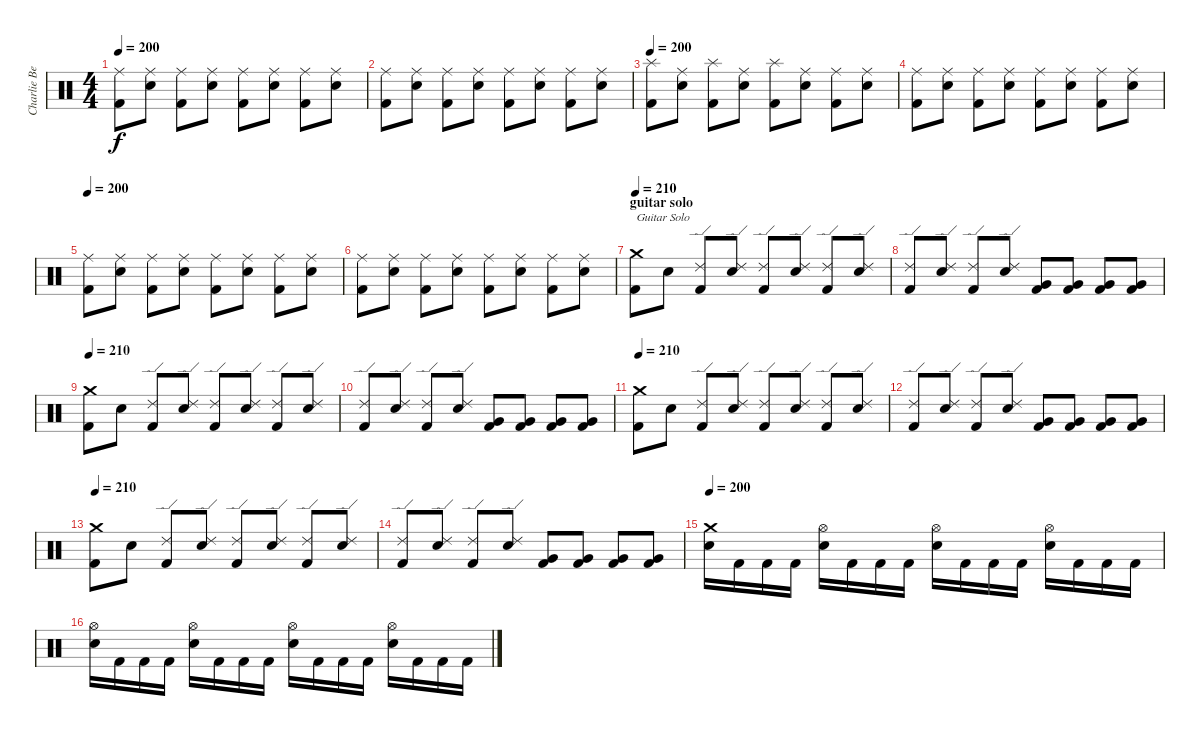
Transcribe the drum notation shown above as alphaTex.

\track ("Charlie Benante" "Charlie Be") {instrument percussion}
\staff {score}
\articulation defaults
\ts (4 4)
\tempo 200
\clef neutral
\ks c
("Ride (middle)" "Kick (hit) 2").8{dy f} ("Ride (middle)" "Electric Snare (hit)").8 ("Ride (middle)" "Kick (hit) 2").8 ("Ride (middle)" "Electric Snare (hit)").8 ("Ride (middle)" "Kick (hit) 2").8 ("Ride (middle)" "Electric Snare (hit)").8 ("Ride (middle)" "Kick (hit) 2").8 ("Ride (middle)" "Electric Snare (hit)").8 |
("Ride (middle)" "Kick (hit) 2").8 ("Ride (middle)" "Electric Snare (hit)").8 ("Ride (middle)" "Kick (hit) 2").8 ("Ride (middle)" "Electric Snare (hit)").8 ("Ride (middle)" "Kick (hit) 2").8 ("Ride (middle)" "Electric Snare (hit)").8 ("Ride (middle)" "Kick (hit) 2").8 ("Ride (middle)" "Electric Snare (hit)").8 |
\tempo 200
("Splash (hit)" "Kick (hit) 2").8 ("Ride (middle)" "Electric Snare (hit)").8 ("Splash (hit)" "Kick (hit) 2").8 ("Ride (middle)" "Electric Snare (hit)").8 ("Splash (hit)" "Kick (hit) 2").8 ("Ride (middle)" "Electric Snare (hit)").8 ("Ride (middle)" "Kick (hit) 2").8 ("Ride (middle)" "Electric Snare (hit)").8 |
("Ride (middle)" "Kick (hit) 2").8 ("Ride (middle)" "Electric Snare (hit)").8 ("Ride (middle)" "Kick (hit) 2").8 ("Ride (middle)" "Electric Snare (hit)").8 ("Ride (middle)" "Kick (hit) 2").8 ("Ride (middle)" "Electric Snare (hit)").8 ("Ride (middle)" "Kick (hit) 2").8 ("Ride (middle)" "Electric Snare (hit)").8 |
\tempo 200
("Ride (middle)" "Kick (hit) 2").8 ("Ride (middle)" "Electric Snare (hit)").8 ("Ride (middle)" "Kick (hit) 2").8 ("Ride (middle)" "Electric Snare (hit)").8 ("Ride (middle)" "Kick (hit) 2").8 ("Ride (middle)" "Electric Snare (hit)").8 ("Ride (middle)" "Kick (hit) 2").8 ("Ride (middle)" "Electric Snare (hit)").8 |
("Ride (middle)" "Kick (hit) 2").8 ("Ride (middle)" "Electric Snare (hit)").8 ("Ride (middle)" "Kick (hit) 2").8 ("Ride (middle)" "Electric Snare (hit)").8 ("Ride (middle)" "Kick (hit) 2").8 ("Ride (middle)" "Electric Snare (hit)").8 ("Ride (middle)" "Kick (hit) 2").8 ("Ride (middle)" "Electric Snare (hit)").8 |
\section ("" "guitar solo")
\tempo 200
\tempo 210
("Crash medium (hit)" "Kick (hit) 2").8{txt "Guitar Solo"} "Electric Snare (hit)".8 ("Ride (edge) 2" "Kick (hit) 2").8 ("Ride (edge) 2" "Electric Snare (hit)").8 ("Ride (edge) 2" "Kick (hit) 2").8 ("Ride (edge) 2" "Electric Snare (hit)").8 ("Ride (edge) 2" "Kick (hit) 2").8 ("Ride (edge) 2" "Electric Snare (hit)").8 |
("Ride (edge) 2" "Kick (hit) 2").8 ("Ride (edge) 2" "Electric Snare (hit)").8 ("Ride (edge) 2" "Kick (hit) 2").8 ("Ride (edge) 2" "Electric Snare (hit)").8 ("Very Low Tom (hit)" "Kick (hit) 2").8 ("Very Low Tom (hit)" "Kick (hit) 2").8 ("Very Low Tom (hit)" "Kick (hit) 2").8 ("Very Low Tom (hit)" "Kick (hit) 2").8 |
\tempo 200
\tempo 210
("Crash medium (hit)" "Kick (hit) 2").8 "Electric Snare (hit)".8 ("Ride (edge) 2" "Kick (hit) 2").8 ("Ride (edge) 2" "Electric Snare (hit)").8 ("Ride (edge) 2" "Kick (hit) 2").8 ("Ride (edge) 2" "Electric Snare (hit)").8 ("Ride (edge) 2" "Kick (hit) 2").8 ("Ride (edge) 2" "Electric Snare (hit)").8 |
("Ride (edge) 2" "Kick (hit) 2").8 ("Ride (edge) 2" "Electric Snare (hit)").8 ("Ride (edge) 2" "Kick (hit) 2").8 ("Ride (edge) 2" "Electric Snare (hit)").8 ("Very Low Tom (hit)" "Kick (hit) 2").8 ("Very Low Tom (hit)" "Kick (hit) 2").8 ("Very Low Tom (hit)" "Kick (hit) 2").8 ("Very Low Tom (hit)" "Kick (hit) 2").8 |
\tempo 200
\tempo 210
("Crash medium (hit)" "Kick (hit) 2").8 "Electric Snare (hit)".8 ("Ride (edge) 2" "Kick (hit) 2").8 ("Ride (edge) 2" "Electric Snare (hit)").8 ("Ride (edge) 2" "Kick (hit) 2").8 ("Ride (edge) 2" "Electric Snare (hit)").8 ("Ride (edge) 2" "Kick (hit) 2").8 ("Ride (edge) 2" "Electric Snare (hit)").8 |
("Ride (edge) 2" "Kick (hit) 2").8 ("Ride (edge) 2" "Electric Snare (hit)").8 ("Ride (edge) 2" "Kick (hit) 2").8 ("Ride (edge) 2" "Electric Snare (hit)").8 ("Very Low Tom (hit)" "Kick (hit) 2").8 ("Very Low Tom (hit)" "Kick (hit) 2").8 ("Very Low Tom (hit)" "Kick (hit) 2").8 ("Very Low Tom (hit)" "Kick (hit) 2").8 |
\tempo 200
\tempo 210
("Crash medium (hit)" "Kick (hit) 2").8 "Electric Snare (hit)".8 ("Ride (edge) 2" "Kick (hit) 2").8 ("Ride (edge) 2" "Electric Snare (hit)").8 ("Ride (edge) 2" "Kick (hit) 2").8 ("Ride (edge) 2" "Electric Snare (hit)").8 ("Ride (edge) 2" "Kick (hit) 2").8 ("Ride (edge) 2" "Electric Snare (hit)").8 |
("Ride (edge) 2" "Kick (hit) 2").8 ("Ride (edge) 2" "Electric Snare (hit)").8 ("Ride (edge) 2" "Kick (hit) 2").8 ("Ride (edge) 2" "Electric Snare (hit)").8 ("Very Low Tom (hit)" "Kick (hit) 2").8 ("Very Low Tom (hit)" "Kick (hit) 2").8 ("Very Low Tom (hit)" "Kick (hit) 2").8 ("Very Low Tom (hit)" "Kick (hit) 2").8 |
\tempo 200
("Crash medium (hit)" "Electric Snare (hit)").16 "Kick (hit) 2".16 "Kick (hit) 2".16 "Kick (hit) 2".16 ("Hi-Hat (open)" "Electric Snare (hit)").16 "Kick (hit) 2".16 "Kick (hit) 2".16 "Kick (hit) 2".16 ("Hi-Hat (open)" "Electric Snare (hit)").16 "Kick (hit) 2".16 "Kick (hit) 2".16 "Kick (hit) 2".16 ("Hi-Hat (open)" "Electric Snare (hit)").16 "Kick (hit) 2".16 "Kick (hit) 2".16 "Kick (hit) 2".16 |
("Hi-Hat (open)" "Electric Snare (hit)").16 "Kick (hit) 2".16 "Kick (hit) 2".16 "Kick (hit) 2".16 ("Hi-Hat (open)" "Electric Snare (hit)").16 "Kick (hit) 2".16 "Kick (hit) 2".16 "Kick (hit) 2".16 ("Hi-Hat (open)" "Electric Snare (hit)").16 "Kick (hit) 2".16 "Kick (hit) 2".16 "Kick (hit) 2".16 ("Hi-Hat (open)" "Electric Snare (hit)").16 "Kick (hit) 2".16 "Kick (hit) 2".16 "Kick (hit) 2".16
